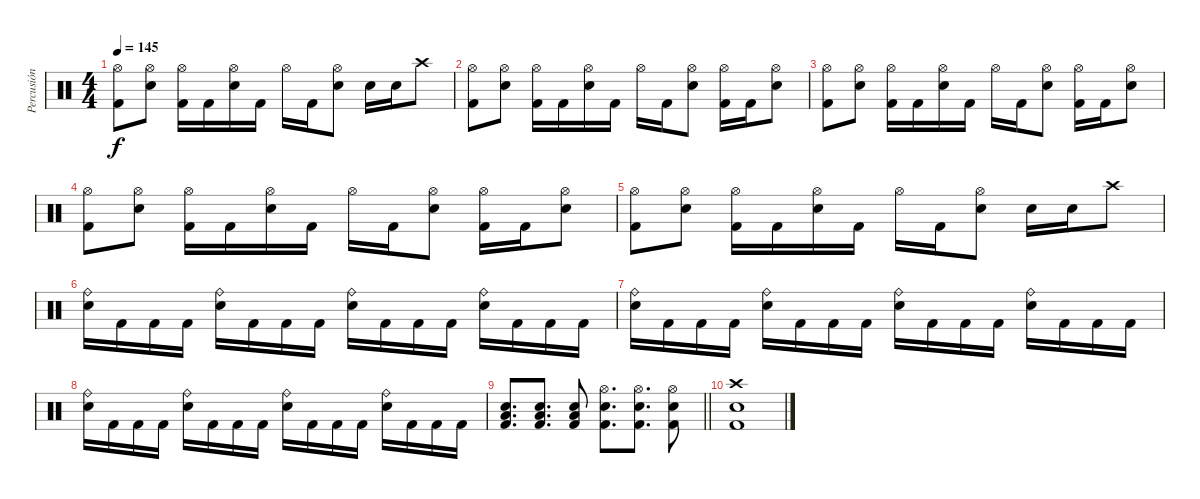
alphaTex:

\track ("Percusión" "Percusión") {instrument percussion}
\staff {score}
\articulation defaults
\ts (4 4)
\tempo 145
\clef neutral
\ks c
("Hi-Hat (open)" "Kick (hit) 2").8{dy f} ("Hi-Hat (open)" "Electric Snare (hit)").8 ("Hi-Hat (open)" "Kick (hit) 2").16 "Kick (hit) 2".16 ("Hi-Hat (open)" "Electric Snare (hit)").16 "Kick (hit) 2".16 "Hi-Hat (open)".16 "Kick (hit) 2".16 ("Hi-Hat (open)" "Electric Snare (hit)").8 "Electric Snare (hit)".16 "Electric Snare (hit)".16 "Crash high (hit)".8 |
("Hi-Hat (open)" "Kick (hit) 2").8 ("Hi-Hat (open)" "Electric Snare (hit)").8 ("Hi-Hat (open)" "Kick (hit) 2").16 "Kick (hit) 2".16 ("Hi-Hat (open)" "Electric Snare (hit)").16 "Kick (hit) 2".16 "Hi-Hat (open)".16 "Kick (hit) 2".16 ("Hi-Hat (open)" "Electric Snare (hit)").8 ("Hi-Hat (open)" "Kick (hit) 2").16 "Kick (hit) 2".16 ("Hi-Hat (open)" "Electric Snare (hit)").8 |
("Hi-Hat (open)" "Kick (hit) 2").8 ("Hi-Hat (open)" "Electric Snare (hit)").8 ("Hi-Hat (open)" "Kick (hit) 2").16 "Kick (hit) 2".16 ("Hi-Hat (open)" "Electric Snare (hit)").16 "Kick (hit) 2".16 "Hi-Hat (open)".16 "Kick (hit) 2".16 ("Hi-Hat (open)" "Electric Snare (hit)").8 ("Hi-Hat (open)" "Kick (hit) 2").16 "Kick (hit) 2".16 ("Hi-Hat (open)" "Electric Snare (hit)").8 |
("Hi-Hat (open)" "Kick (hit) 2").8 ("Hi-Hat (open)" "Electric Snare (hit)").8 ("Hi-Hat (open)" "Kick (hit) 2").16 "Kick (hit) 2".16 ("Hi-Hat (open)" "Electric Snare (hit)").16 "Kick (hit) 2".16 "Hi-Hat (open)".16 "Kick (hit) 2".16 ("Hi-Hat (open)" "Electric Snare (hit)").8 ("Hi-Hat (open)" "Kick (hit) 2").16 "Kick (hit) 2".16 ("Hi-Hat (open)" "Electric Snare (hit)").8 |
("Hi-Hat (open)" "Kick (hit) 2").8 ("Hi-Hat (open)" "Electric Snare (hit)").8 ("Hi-Hat (open)" "Kick (hit) 2").16 "Kick (hit) 2".16 ("Hi-Hat (open)" "Electric Snare (hit)").16 "Kick (hit) 2".16 "Hi-Hat (open)".16 "Kick (hit) 2".16 ("Hi-Hat (open)" "Electric Snare (hit)").8 "Electric Snare (hit)".16 "Electric Snare (hit)".16 "Crash high (hit)".8 |
("Ride (bell)" "Electric Snare (hit)").16 "Kick (hit) 2".16 "Kick (hit) 2".16 "Kick (hit) 2".16 ("Ride (bell)" "Electric Snare (hit)").16 "Kick (hit) 2".16 "Kick (hit) 2".16 "Kick (hit) 2".16 ("Ride (bell)" "Electric Snare (hit)").16 "Kick (hit) 2".16 "Kick (hit) 2".16 "Kick (hit) 2".16 ("Ride (bell)" "Electric Snare (hit)").16 "Kick (hit) 2".16 "Kick (hit) 2".16 "Kick (hit) 2".16 |
("Ride (bell)" "Electric Snare (hit)").16 "Kick (hit) 2".16 "Kick (hit) 2".16 "Kick (hit) 2".16 ("Ride (bell)" "Electric Snare (hit)").16 "Kick (hit) 2".16 "Kick (hit) 2".16 "Kick (hit) 2".16 ("Ride (bell)" "Electric Snare (hit)").16 "Kick (hit) 2".16 "Kick (hit) 2".16 "Kick (hit) 2".16 ("Ride (bell)" "Electric Snare (hit)").16 "Kick (hit) 2".16 "Kick (hit) 2".16 "Kick (hit) 2".16 |
("Ride (bell)" "Electric Snare (hit)").16 "Kick (hit) 2".16 "Kick (hit) 2".16 "Kick (hit) 2".16 ("Ride (bell)" "Electric Snare (hit)").16 "Kick (hit) 2".16 "Kick (hit) 2".16 "Kick (hit) 2".16 ("Ride (bell)" "Electric Snare (hit)").16 "Kick (hit) 2".16 "Kick (hit) 2".16 "Kick (hit) 2".16 ("Ride (bell)" "Electric Snare (hit)").16 "Kick (hit) 2".16 "Kick (hit) 2".16 "Kick (hit) 2".16 |
\barLineRight lightlight
("Low Floor Tom (hit)" "Electric Snare (hit)" "Kick (hit) 2").8{d} ("Low Floor Tom (hit)" "Electric Snare (hit)" "Kick (hit) 2").8{d} ("Low Floor Tom (hit)" "Electric Snare (hit)" "Kick (hit) 2").8 ("Hi-Hat (open)" "Electric Snare (hit)" "Kick (hit) 2").8{d} ("Hi-Hat (open)" "Electric Snare (hit)" "Kick (hit) 2").8{d} ("Hi-Hat (open)" "Electric Snare (hit)" "Kick (hit) 2").8 |
("Crash high (hit)" "Electric Snare (hit)" "Kick (hit) 2").1
